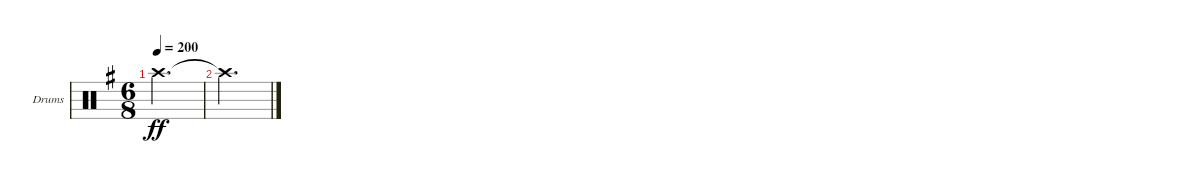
\bracketExtendMode groupsimilarinstruments
\firstSystemTrackNameOrientation horizontal
\otherSystemsTrackNameOrientation horizontal
\track ("Drumkit" "Drums") {instrument percussion}
\staff {score}
\articulation defaults
\ts (6 8)
\tempo 200
\clef neutral
\ks eminor "Crash high (hit)".2{d dy ff}
|
"Crash high (hit)"{t}.2{d}
